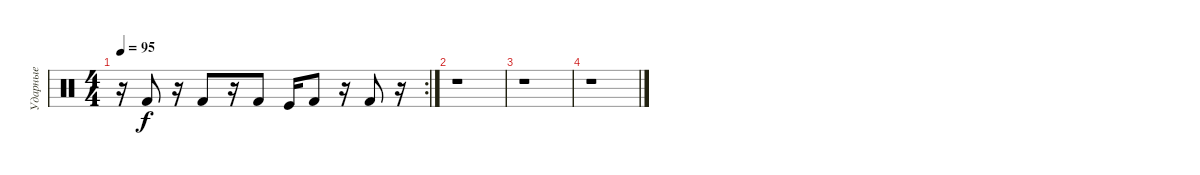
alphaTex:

\track ("Ударные" "Ударные") {instrument percussion}
\staff {score}
\articulation defaults
\rc 2
\ts (4 4)
\tempo 95
\clef neutral
\ks c
r.16{dy f} "Kick (hit) 2".8 r.16 "Kick (hit) 2".8 r.16 "Kick (hit) 2".8 "Kick (hit)".16 "Kick (hit) 2".8 r.16 "Kick (hit) 2".8 r.16 |
r.1 |
r.1 |
r.1
